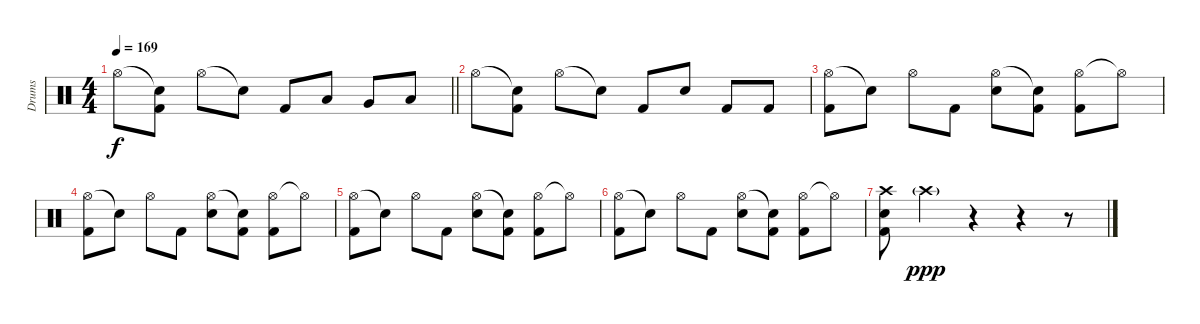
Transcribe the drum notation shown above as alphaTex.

\track ("Drums" "Drums") {instrument percussion}
\staff {score}
\articulation defaults
\ts (4 4)
\tempo 169
\clef neutral
\barLineRight lightlight
\ks c "Hi-Hat (open)".8{dy f}
("Snare (hit)"{t} "Kick (hit) 2").8 "Hi-Hat (open)".8 "Snare (hit)"{t}.8 "Kick (hit) 2".8 "Low Tom (hit)".8 "Very Low Tom (hit)".8 "Low Floor Tom (hit)".8 |
"Hi-Hat (open)".8 ("Snare (hit)"{t} "Kick (hit) 2").8 "Hi-Hat (open)".8 "Snare (hit)"{t}.8 "Kick (hit) 2".8 "Electric Snare (hit)".8 "Kick (hit) 2".8 "Kick (hit) 2".8 |
("Hi-Hat (open)" "Kick (hit) 2").8 "Snare (hit)"{t}.8 "Hi-Hat (open)".8 "Kick (hit) 2".8 ("Hi-Hat (open)" "Electric Snare (hit)").8 ("Snare (hit)"{t} "Kick (hit) 2").8 ("Hi-Hat (open)" "Kick (hit) 2").8 "Hi-Hat (open)"{t}.8 |
("Hi-Hat (open)" "Kick (hit) 2").8 "Snare (hit)"{t}.8 "Hi-Hat (open)".8 "Kick (hit) 2".8 ("Hi-Hat (open)" "Electric Snare (hit)").8 ("Snare (hit)"{t} "Kick (hit) 2").8 ("Hi-Hat (open)" "Kick (hit) 2").8 "Hi-Hat (open)"{t}.8 |
("Hi-Hat (open)" "Kick (hit) 2").8 "Snare (hit)"{t}.8 "Hi-Hat (open)".8 "Kick (hit) 2".8 ("Hi-Hat (open)" "Electric Snare (hit)").8 ("Snare (hit)"{t} "Kick (hit) 2").8 ("Hi-Hat (open)" "Kick (hit) 2").8 "Hi-Hat (open)"{t}.8 |
("Hi-Hat (open)" "Kick (hit) 2").8 "Snare (hit)"{t}.8 "Hi-Hat (open)".8 "Kick (hit) 2".8 ("Hi-Hat (open)" "Electric Snare (hit)").8 ("Snare (hit)"{t} "Kick (hit) 2").8 ("Hi-Hat (open)" "Kick (hit) 2").8 "Hi-Hat (open)"{t}.8 |
("Crash high (hit)" "Electric Snare (hit)" "Kick (hit) 2").8 "Crash high (hit)"{g}.4{dy ppp} r.4 r.4 r.8
